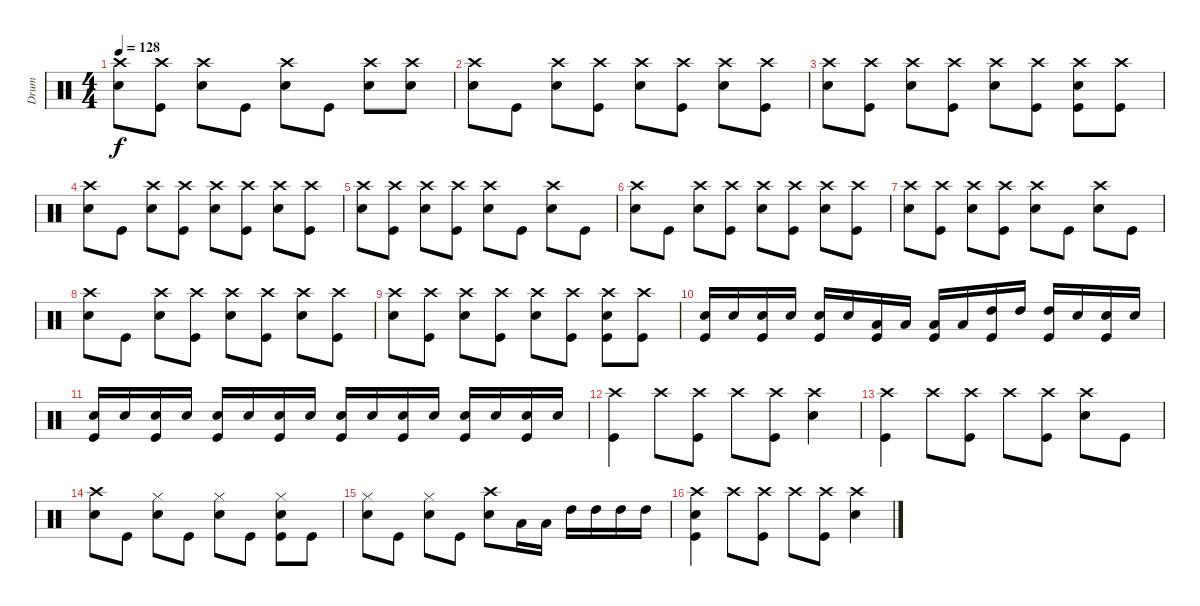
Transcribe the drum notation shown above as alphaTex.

\track ("Drum" "Drum") {instrument percussion}
\staff {score}
\articulation defaults
\ts (4 4)
\tempo 128
\clef neutral
\ks c
("Crash high (hit)" "Snare (hit) 2").8{dy f} ("Crash high (hit)" "Kick (hit)").8 ("Crash high (hit)" "Snare (hit) 2").8 "Kick (hit)".8 ("Crash high (hit)" "Snare (hit) 2").8 "Kick (hit)".8 ("Crash high (hit)" "Snare (hit) 2").8 ("Crash high (hit)" "Snare (hit) 2").8 |
("Crash high (hit)" "Snare (hit) 2").8 "Kick (hit)".8 ("Crash high (hit)" "Snare (hit) 2").8 ("Crash high (hit)" "Kick (hit)").8 ("Crash high (hit)" "Snare (hit) 2").8 ("Crash high (hit)" "Kick (hit)").8 ("Crash high (hit)" "Snare (hit) 2").8 ("Crash high (hit)" "Kick (hit)").8 |
("Crash high (hit)" "Snare (hit) 2").8 ("Crash high (hit)" "Kick (hit)").8 ("Crash high (hit)" "Snare (hit) 2").8 ("Crash high (hit)" "Kick (hit)").8 ("Crash high (hit)" "Snare (hit) 2").8 ("Crash high (hit)" "Kick (hit)").8 ("Crash high (hit)" "Snare (hit) 2" "Kick (hit)").8 ("Crash high (hit)" "Kick (hit)").8 |
("Crash high (hit)" "Snare (hit) 2").8 "Kick (hit)".8 ("Crash high (hit)" "Snare (hit) 2").8 ("Crash high (hit)" "Kick (hit)").8 ("Crash high (hit)" "Snare (hit) 2").8 ("Crash high (hit)" "Kick (hit)").8 ("Crash high (hit)" "Snare (hit) 2").8 ("Crash high (hit)" "Kick (hit)").8 |
("Crash high (hit)" "Snare (hit) 2").8 ("Crash high (hit)" "Kick (hit)").8 ("Crash high (hit)" "Snare (hit) 2").8 ("Crash high (hit)" "Kick (hit)").8 ("Crash high (hit)" "Snare (hit) 2").8 "Kick (hit)".8 ("Crash high (hit)" "Snare (hit) 2").8 "Kick (hit)".8 |
("Crash high (hit)" "Snare (hit) 2").8 "Kick (hit)".8 ("Crash high (hit)" "Snare (hit) 2").8 ("Crash high (hit)" "Kick (hit)").8 ("Crash high (hit)" "Snare (hit) 2").8 ("Crash high (hit)" "Kick (hit)").8 ("Crash high (hit)" "Snare (hit) 2").8 ("Crash high (hit)" "Kick (hit)").8 |
("Crash high (hit)" "Snare (hit) 2").8 ("Crash high (hit)" "Kick (hit)").8 ("Crash high (hit)" "Snare (hit) 2").8 ("Crash high (hit)" "Kick (hit)").8 ("Crash high (hit)" "Snare (hit) 2").8 "Kick (hit)".8 ("Crash high (hit)" "Snare (hit) 2").8 "Kick (hit)".8 |
("Crash high (hit)" "Snare (hit) 2").8 "Kick (hit)".8 ("Crash high (hit)" "Snare (hit) 2").8 ("Crash high (hit)" "Kick (hit)").8 ("Crash high (hit)" "Snare (hit) 2").8 ("Crash high (hit)" "Kick (hit)").8 ("Crash high (hit)" "Snare (hit) 2").8 ("Crash high (hit)" "Kick (hit)").8 |
("Crash high (hit)" "Snare (hit) 2").8 ("Crash high (hit)" "Kick (hit)").8 ("Crash high (hit)" "Snare (hit) 2").8 ("Crash high (hit)" "Kick (hit)").8 ("Crash high (hit)" "Snare (hit) 2").8 ("Crash high (hit)" "Kick (hit)").8 ("Crash high (hit)" "Snare (hit) 2" "Kick (hit)").8 ("Crash high (hit)" "Kick (hit)").8 |
("Snare (hit) 2" "Kick (hit)").16 "Snare (hit) 2".16 ("Snare (hit) 2" "Kick (hit)").16 "Snare (hit) 2".16 ("Snare (hit) 2" "Kick (hit)").16 "Snare (hit) 2".16 ("Low Tom (hit)" "Kick (hit)").16 "Low Tom (hit)".16 ("Low Tom (hit)" "Kick (hit)").16 "Low Tom (hit)".16 ("High Tom (hit)" "Kick (hit)").16 "High Tom (hit)".16 ("High Tom (hit)" "Kick (hit)").16 "Snare (hit) 2".16 ("Snare (hit) 2" "Kick (hit)").16 "Snare (hit) 2".16 |
("Snare (hit) 2" "Kick (hit)").16 "Snare (hit) 2".16 ("Snare (hit) 2" "Kick (hit)").16 "Snare (hit) 2".16 ("Snare (hit) 2" "Kick (hit)").16 "Snare (hit) 2".16 ("Snare (hit) 2" "Kick (hit)").16 "Snare (hit) 2".16 ("Snare (hit) 2" "Kick (hit)").16 "Snare (hit) 2".16 ("Snare (hit) 2" "Kick (hit)").16 "Snare (hit) 2".16 ("Snare (hit) 2" "Kick (hit)").16 "Snare (hit) 2".16 ("Snare (hit) 2" "Kick (hit)").16 "Snare (hit) 2".16 |
("Crash high (hit)" "Kick (hit)").4 "Crash high (hit)".8 ("Crash high (hit)" "Kick (hit)").8 "Crash high (hit)".8 ("Crash high (hit)" "Kick (hit)").8 ("Crash high (hit)" "Snare (hit) 2").4 |
("Crash high (hit)" "Kick (hit)").4 "Crash high (hit)".8 ("Crash high (hit)" "Kick (hit)").8 "Crash high (hit)".8 ("Crash high (hit)" "Kick (hit)").8 ("Crash high (hit)" "Snare (hit) 2").8 "Kick (hit)".8 |
("Crash high (hit)" "Snare (hit) 2").8 "Kick (hit)".8 ("Hi-Hat (closed)" "Snare (hit) 2").8 "Kick (hit)".8 ("Hi-Hat (closed)" "Snare (hit) 2").8 "Kick (hit)".8 ("Hi-Hat (closed)" "Snare (hit) 2" "Kick (hit)").8 "Kick (hit)".8 |
("Hi-Hat (closed)" "Snare (hit) 2").8 "Kick (hit)".8 ("Hi-Hat (closed)" "Snare (hit) 2").8 "Kick (hit)".8 ("Crash high (hit)" "Snare (hit) 2").8 "Low Tom (hit)".16 "Low Tom (hit)".16 "High Tom (hit)".16 "High Tom (hit)".16 "High Tom (hit)".16 "High Tom (hit)".16 |
("Crash high (hit)" "Snare (hit) 2" "Kick (hit)").4 "Crash high (hit)".8 ("Crash high (hit)" "Kick (hit)").8 "Crash high (hit)".8 ("Crash high (hit)" "Kick (hit)").8 ("Crash high (hit)" "Snare (hit) 2").4
